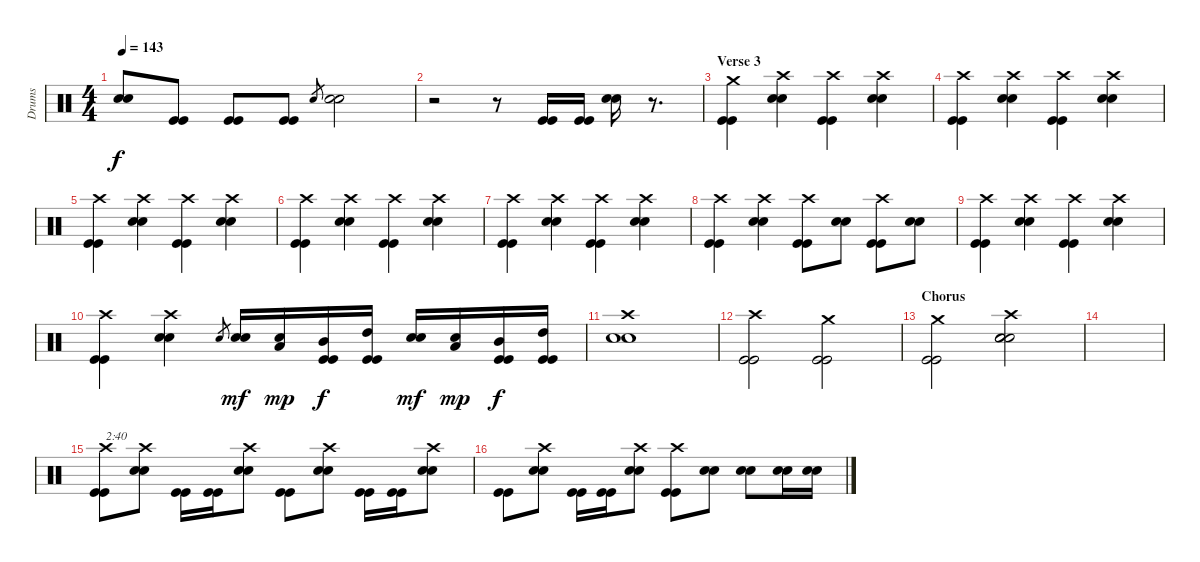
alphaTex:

\track ("Drums" "Drums") {instrument percussion}
\staff {score}
\articulation defaults
\ts (4 4)
\tempo 143
\clef neutral
\ks c
("Electric Snare (hit)" "Electric Snare (hit)").8{dy f} ("Kick (hit)" "Kick (hit)").8 ("Kick (hit)" "Kick (hit)").8 ("Kick (hit)" "Kick (hit)").8 "Electric Snare (hit)".8{gr} ("Electric Snare (hit)" "Electric Snare (hit)").2 |
r.2 r.8 ("Kick (hit)" "Kick (hit)").16 ("Kick (hit)" "Kick (hit)").16 ("Electric Snare (hit)" "Electric Snare (hit)").16 r.8{d} |
\section ("" "Verse 3")
("Crash medium (hit)" "Kick (hit)" "Kick (hit)").4 ("Crash high (hit)" "Electric Snare (hit)" "Electric Snare (hit)").4 ("Crash high (hit)" "Kick (hit)" "Kick (hit)").4 ("Crash high (hit)" "Electric Snare (hit)" "Electric Snare (hit)").4 |
("Crash high (hit)" "Kick (hit)" "Kick (hit)").4 ("Crash high (hit)" "Electric Snare (hit)" "Electric Snare (hit)").4 ("Crash high (hit)" "Kick (hit)" "Kick (hit)").4 ("Crash high (hit)" "Electric Snare (hit)" "Electric Snare (hit)").4 |
("Crash high (hit)" "Kick (hit)" "Kick (hit)").4 ("Crash high (hit)" "Electric Snare (hit)" "Electric Snare (hit)").4 ("Crash high (hit)" "Kick (hit)" "Kick (hit)").4 ("Crash high (hit)" "Electric Snare (hit)" "Electric Snare (hit)").4 |
("Crash high (hit)" "Kick (hit)" "Kick (hit)").4 ("Crash high (hit)" "Electric Snare (hit)" "Electric Snare (hit)").4 ("Crash high (hit)" "Kick (hit)" "Kick (hit)").4 ("Crash high (hit)" "Electric Snare (hit)" "Electric Snare (hit)").4 |
("Crash high (hit)" "Kick (hit)" "Kick (hit)").4 ("Crash high (hit)" "Electric Snare (hit)" "Electric Snare (hit)").4 ("Crash high (hit)" "Kick (hit)" "Kick (hit)").4 ("Crash high (hit)" "Electric Snare (hit)" "Electric Snare (hit)").4 |
("Crash high (hit)" "Kick (hit)" "Kick (hit)").4 ("Crash high (hit)" "Electric Snare (hit)" "Electric Snare (hit)").4 ("Crash high (hit)" "Kick (hit)" "Kick (hit)").8 ("Electric Snare (hit)" "Electric Snare (hit)").8 ("Crash high (hit)" "Kick (hit)" "Kick (hit)").8 ("Electric Snare (hit)" "Electric Snare (hit)").8 |
("Crash high (hit)" "Kick (hit)" "Kick (hit)").4 ("Crash high (hit)" "Electric Snare (hit)" "Electric Snare (hit)").4 ("Crash high (hit)" "Kick (hit)" "Kick (hit)").4 ("Crash high (hit)" "Electric Snare (hit)" "Electric Snare (hit)").4 |
("Crash high (hit)" "Kick (hit)" "Kick (hit)").4 ("Crash high (hit)" "Electric Snare (hit)" "Electric Snare (hit)").4 "Electric Snare (hit)".8{gr} ("Electric Snare (hit)" "Electric Snare (hit)").16{dy mf} ("Electric Snare (hit)" "Low Tom (hit)").16{dy mp} ("Mid Tom (hit)" "Kick (hit)" "Kick (hit)").16{dy f} ("High Tom (hit)" "Kick (hit)" "Kick (hit)").16 ("Electric Snare (hit)" "Electric Snare (hit)").16{dy mf} ("Electric Snare (hit)" "Low Tom (hit)").16{dy mp} ("Mid Tom (hit)" "Kick (hit)" "Kick (hit)").16{dy f} ("High Tom (hit)" "Kick (hit)" "Kick (hit)").16 |
("Crash high (hit)" "Electric Snare (hit)" "Electric Snare (hit)").1 |
("Crash high (hit)" "Kick (hit)" "Kick (hit)").2 ("Crash medium (hit)" "Kick (hit)" "Kick (hit)").2 |
\section ("" "Chorus")
("Crash medium (hit)" "Kick (hit)" "Kick (hit)").2 ("Crash high (hit)" "Electric Snare (hit)" "Electric Snare (hit)" "Electric Snare (hit)").2 |
|
("Crash high (hit)" "Kick (hit)" "Kick (hit)").8{txt "2:40"} ("Crash high (hit)" "Electric Snare (hit)" "Electric Snare (hit)").8 ("Kick (hit)" "Kick (hit)").16 ("Kick (hit)" "Kick (hit)").16 ("Crash high (hit)" "Electric Snare (hit)" "Electric Snare (hit)").8 ("Kick (hit)" "Kick (hit)").8 ("Crash high (hit)" "Electric Snare (hit)" "Electric Snare (hit)").8 ("Kick (hit)" "Kick (hit)").16 ("Kick (hit)" "Kick (hit)").16 ("Crash high (hit)" "Electric Snare (hit)" "Electric Snare (hit)").8 |
("Kick (hit)" "Kick (hit)").8 ("Crash high (hit)" "Electric Snare (hit)" "Electric Snare (hit)").8 ("Kick (hit)" "Kick (hit)").16 ("Kick (hit)" "Kick (hit)").16 ("Crash high (hit)" "Electric Snare (hit)" "Electric Snare (hit)").8 ("Crash high (hit)" "Kick (hit)" "Kick (hit)").8 ("Electric Snare (hit)" "Electric Snare (hit)").8 ("Electric Snare (hit)" "Electric Snare (hit)").8 ("Electric Snare (hit)" "Electric Snare (hit)").16 ("Electric Snare (hit)" "Electric Snare (hit)").16
